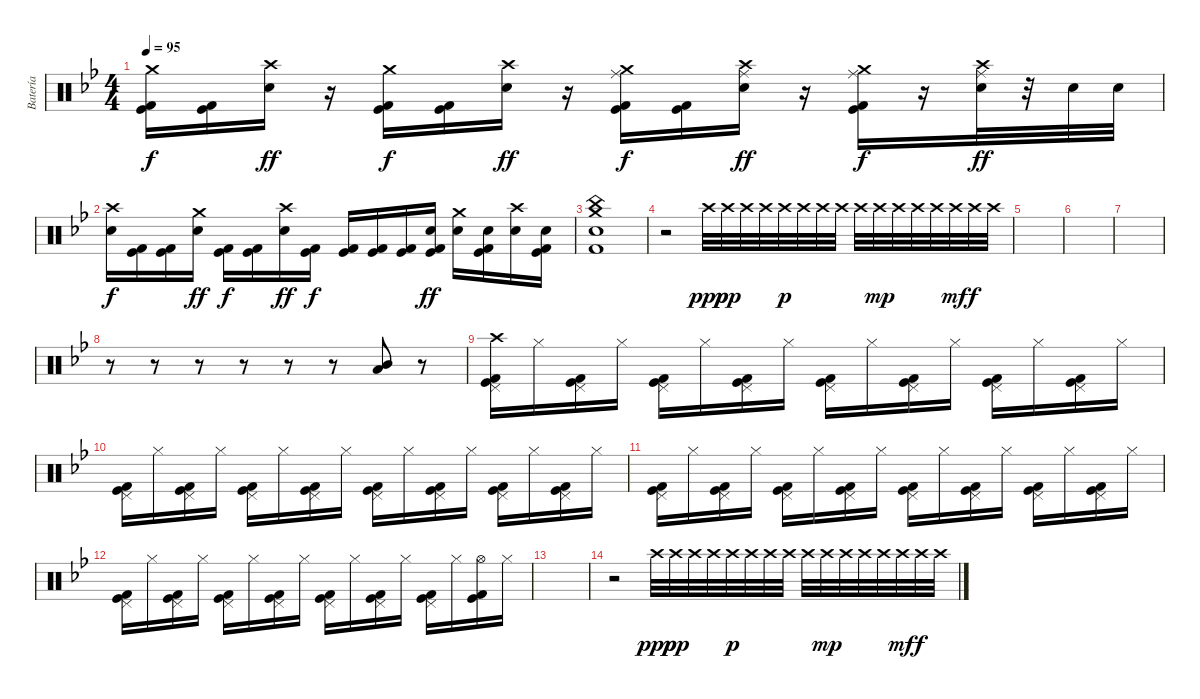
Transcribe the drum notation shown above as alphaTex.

\track ("Batería" "Batería") {instrument percussion}
\staff {score}
\articulation defaults
\ts (4 4)
\tempo 95
\clef neutral
\ks bb
("Crash medium (hit)" "Kick (hit) 2" "Kick (hit)").16{dy f} ("Kick (hit) 2" "Kick (hit)").16 ("Crash high (hit)" "Electric Snare (hit)").16{dy ff} r.16 ("Crash medium (hit)" "Kick (hit) 2" "Kick (hit)").16{dy f} ("Kick (hit) 2" "Kick (hit)").16 ("Crash high (hit)" "Electric Snare (hit)").16{dy ff} r.16 ("Crash medium (hit)" "Ride (middle)" "Kick (hit) 2" "Kick (hit)").16{dy f} ("Kick (hit) 2" "Kick (hit)").16 ("Crash high (hit)" "Ride (middle)" "Electric Snare (hit)").16{dy ff} r.16 ("Crash medium (hit)" "Ride (middle)" "Kick (hit) 2" "Kick (hit)").16{dy f} r.16 ("Crash high (hit)" "Ride (middle)" "Electric Snare (hit)").32{dy ff} r.32 "Electric Snare (hit)".32 "Electric Snare (hit)".32 |
("Crash high (hit)" "Electric Snare (hit)").16{dy f} ("Kick (hit) 2" "Kick (hit)").16 ("Kick (hit) 2" "Kick (hit)").16 ("Crash medium (hit)" "Electric Snare (hit)").16{dy ff} ("Kick (hit) 2" "Kick (hit)").16{dy f} ("Kick (hit) 2" "Kick (hit)").16 ("Crash high (hit)" "Electric Snare (hit)").16{dy ff} ("Kick (hit) 2" "Kick (hit)").16{dy f} ("Kick (hit) 2" "Kick (hit)").16 ("Kick (hit) 2" "Kick (hit)").16 ("Kick (hit) 2" "Kick (hit)").16 ("Electric Snare (hit)" "Kick (hit) 2" "Kick (hit)").16{dy ff} ("Crash medium (hit)" "Electric Snare (hit)").16 ("Electric Snare (hit)" "Kick (hit) 2" "Kick (hit)").16 ("Crash high (hit)" "Electric Snare (hit)").16 ("Electric Snare (hit)" "Kick (hit) 2" "Kick (hit)").16 |
("Crash medium (hit)" "China (hit)" "Electric Snare (hit)" "Kick (hit) 2").1 |
r.2 "Crash high (hit)".32{dy ppp} "Crash high (hit)".32{dy pp} "Crash high (hit)".32 "Crash high (hit)".32 "Crash high (hit)".32{dy p} "Crash high (hit)".32 "Crash high (hit)".32 "Crash high (hit)".32 "Crash high (hit)".32 "Crash high (hit)".32{dy mp} "Crash high (hit)".32 "Crash high (hit)".32 "Crash high (hit)".32 "Crash high (hit)".32{dy mf} "Crash high (hit)".32{dy f} "Crash high (hit)".32 |
|
|
|
r.8 r.8 r.8 r.8 r.8 r.8 ("Mid Tom (hit)" "Low Tom (hit)").8 r.8 |
("Crash high (hit)" "Pedal Hi-Hat (hit)" "Kick (hit) 2" "Kick (hit)").16 "Hi-Hat (closed)".16 ("Pedal Hi-Hat (hit)" "Kick (hit) 2" "Kick (hit)").16 "Hi-Hat (closed)".16 ("Pedal Hi-Hat (hit)" "Kick (hit) 2" "Kick (hit)").16 "Hi-Hat (closed)".16 ("Pedal Hi-Hat (hit)" "Kick (hit) 2" "Kick (hit)").16 "Hi-Hat (closed)".16 ("Pedal Hi-Hat (hit)" "Kick (hit) 2" "Kick (hit)").16 "Hi-Hat (closed)".16 ("Pedal Hi-Hat (hit)" "Kick (hit) 2" "Kick (hit)").16 "Hi-Hat (closed)".16 ("Pedal Hi-Hat (hit)" "Kick (hit) 2" "Kick (hit)").16 "Hi-Hat (closed)".16 ("Pedal Hi-Hat (hit)" "Kick (hit) 2" "Kick (hit)").16 "Hi-Hat (closed)".16 |
("Pedal Hi-Hat (hit)" "Kick (hit) 2" "Kick (hit)").16 "Hi-Hat (closed)".16 ("Pedal Hi-Hat (hit)" "Kick (hit) 2" "Kick (hit)").16 "Hi-Hat (closed)".16 ("Pedal Hi-Hat (hit)" "Kick (hit) 2" "Kick (hit)").16 "Hi-Hat (closed)".16 ("Pedal Hi-Hat (hit)" "Kick (hit) 2" "Kick (hit)").16 "Hi-Hat (closed)".16 ("Pedal Hi-Hat (hit)" "Kick (hit) 2" "Kick (hit)").16 "Hi-Hat (closed)".16 ("Pedal Hi-Hat (hit)" "Kick (hit) 2" "Kick (hit)").16 "Hi-Hat (closed)".16 ("Pedal Hi-Hat (hit)" "Kick (hit) 2" "Kick (hit)").16 "Hi-Hat (closed)".16 ("Pedal Hi-Hat (hit)" "Kick (hit) 2" "Kick (hit)").16 "Hi-Hat (closed)".16 |
("Pedal Hi-Hat (hit)" "Kick (hit) 2" "Kick (hit)").16 "Hi-Hat (closed)".16 ("Pedal Hi-Hat (hit)" "Kick (hit) 2" "Kick (hit)").16 "Hi-Hat (closed)".16 ("Pedal Hi-Hat (hit)" "Kick (hit) 2" "Kick (hit)").16 "Hi-Hat (closed)".16 ("Pedal Hi-Hat (hit)" "Kick (hit) 2" "Kick (hit)").16 "Hi-Hat (closed)".16 ("Pedal Hi-Hat (hit)" "Kick (hit) 2" "Kick (hit)").16 "Hi-Hat (closed)".16 ("Pedal Hi-Hat (hit)" "Kick (hit) 2" "Kick (hit)").16 "Hi-Hat (closed)".16 ("Pedal Hi-Hat (hit)" "Kick (hit) 2" "Kick (hit)").16 "Hi-Hat (closed)".16 ("Pedal Hi-Hat (hit)" "Kick (hit) 2" "Kick (hit)").16 "Hi-Hat (closed)".16 |
("Pedal Hi-Hat (hit)" "Kick (hit) 2" "Kick (hit)").16 "Hi-Hat (closed)".16 ("Pedal Hi-Hat (hit)" "Kick (hit) 2" "Kick (hit)").16 "Hi-Hat (closed)".16 ("Pedal Hi-Hat (hit)" "Kick (hit) 2" "Kick (hit)").16 "Hi-Hat (closed)".16 ("Pedal Hi-Hat (hit)" "Kick (hit) 2" "Kick (hit)").16 "Hi-Hat (closed)".16 ("Pedal Hi-Hat (hit)" "Kick (hit) 2" "Kick (hit)").16 "Hi-Hat (closed)".16 ("Pedal Hi-Hat (hit)" "Kick (hit) 2" "Kick (hit)").16 "Hi-Hat (closed)".16 ("Pedal Hi-Hat (hit)" "Kick (hit) 2" "Kick (hit)").16 "Hi-Hat (closed)".16 ("Hi-Hat (open)" "Kick (hit) 2" "Kick (hit)").16 "Hi-Hat (closed)".16 |
|
r.2 "Crash high (hit)".32{dy ppp} "Crash high (hit)".32{dy pp} "Crash high (hit)".32 "Crash high (hit)".32 "Crash high (hit)".32{dy p} "Crash high (hit)".32 "Crash high (hit)".32 "Crash high (hit)".32 "Crash high (hit)".32 "Crash high (hit)".32{dy mp} "Crash high (hit)".32 "Crash high (hit)".32 "Crash high (hit)".32 "Crash high (hit)".32{dy mf} "Crash high (hit)".32{dy f} "Crash high (hit)".32
